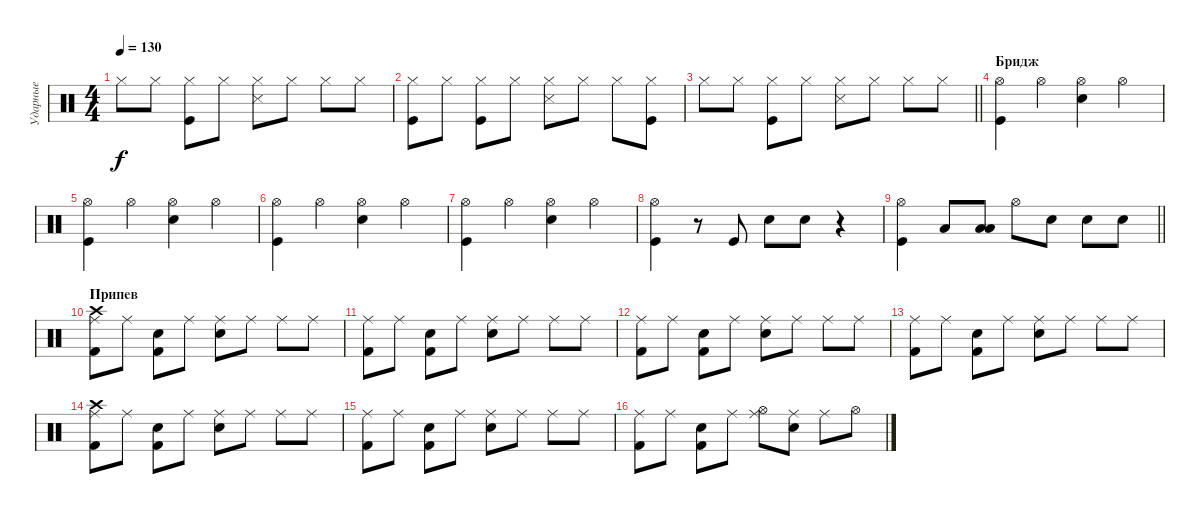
\track ("Ударные" "Ударные") {instrument percussion}
\staff {score}
\articulation defaults
\ts (4 4)
\tempo 130
\clef neutral
\ks c "Hi-Hat (closed)".8{dy f} "Hi-Hat (closed)".8
("Hi-Hat (closed)" "Kick (hit)").8 "Hi-Hat (closed)".8 ("Hi-Hat (closed)" "Snare (side stick) 3").8 "Hi-Hat (closed)".8 "Hi-Hat (closed)".8 "Hi-Hat (closed)".8 |
("Hi-Hat (closed)" "Kick (hit)").8 "Hi-Hat (closed)".8 ("Hi-Hat (closed)" "Kick (hit)").8 "Hi-Hat (closed)".8 ("Hi-Hat (closed)" "Snare (side stick) 3").8 "Hi-Hat (closed)".8 "Hi-Hat (closed)".8 ("Hi-Hat (closed)" "Kick (hit)").8 |
\barLineRight lightlight "Hi-Hat (closed)".8 "Hi-Hat (closed)".8
("Hi-Hat (closed)" "Kick (hit)").8 "Hi-Hat (closed)".8 ("Hi-Hat (closed)" "Snare (side stick) 3").8 "Hi-Hat (closed)".8 "Hi-Hat (closed)".8 "Hi-Hat (closed)".8 |
\section ("" "Бридж")
("Hi-Hat (open)" "Kick (hit)").4 "Hi-Hat (open)".4 ("Hi-Hat (open)" "Electric Snare (hit)").4 "Hi-Hat (open)".4 |
("Hi-Hat (open)" "Kick (hit)").4 "Hi-Hat (open)".4 ("Hi-Hat (open)" "Electric Snare (hit)").4 "Hi-Hat (open)".4 |
("Hi-Hat (open)" "Kick (hit)").4 "Hi-Hat (open)".4 ("Hi-Hat (open)" "Electric Snare (hit)").4 "Hi-Hat (open)".4 |
("Hi-Hat (open)" "Kick (hit)").4 "Hi-Hat (open)".4 ("Hi-Hat (open)" "Electric Snare (hit)").4 "Hi-Hat (open)".4 |
("Hi-Hat (open)" "Kick (hit)").4 r.8 "Kick (hit)".8 "Electric Snare (hit)".8 "Electric Snare (hit)".8 r.4 |
\barLineRight lightlight
("Hi-Hat (open)" "Kick (hit)").4 "Low Tom (hit)".8 ("Low Tom (hit)" "Low Tom (hit)").8 "Hi-Hat (open)".8 "Electric Snare (hit)".8 "Electric Snare (hit)".8 "Electric Snare (hit)".8 |
\section ("" "Припев")
("Crash high (hit)" "Ride (middle)" "Kick (hit) 2").8 "Ride (middle)".8 ("Snare (hit)" "Kick (hit) 2").8 "Ride (middle)".8 ("Ride (middle)" "Electric Snare (hit)").8 "Ride (middle)".8 "Ride (middle)".8 "Ride (middle)".8 |
("Ride (middle)" "Kick (hit) 2").8 "Ride (middle)".8 ("Snare (hit)" "Kick (hit) 2").8 "Ride (middle)".8 ("Ride (middle)" "Electric Snare (hit)").8 "Ride (middle)".8 "Ride (middle)".8 "Ride (middle)".8 |
("Ride (middle)" "Kick (hit) 2").8 "Ride (middle)".8 ("Snare (hit)" "Kick (hit) 2").8 "Ride (middle)".8 ("Ride (middle)" "Electric Snare (hit)").8 "Ride (middle)".8 "Ride (middle)".8 "Ride (middle)".8 |
("Ride (middle)" "Kick (hit) 2").8 "Ride (middle)".8 ("Snare (hit)" "Kick (hit) 2").8 "Ride (middle)".8 ("Ride (middle)" "Electric Snare (hit)").8 "Ride (middle)".8 "Ride (middle)".8 "Ride (middle)".8 |
("Crash high (hit)" "Ride (middle)" "Kick (hit) 2").8 "Ride (middle)".8 ("Snare (hit)" "Kick (hit) 2").8 "Ride (middle)".8 ("Ride (middle)" "Electric Snare (hit)").8 "Ride (middle)".8 "Ride (middle)".8 "Ride (middle)".8 |
("Ride (middle)" "Kick (hit) 2").8 "Ride (middle)".8 ("Snare (hit)" "Kick (hit) 2").8 "Ride (middle)".8 ("Ride (middle)" "Electric Snare (hit)").8 "Ride (middle)".8 "Ride (middle)".8 "Ride (middle)".8 |
("Ride (middle)" "Kick (hit) 2").8 "Ride (middle)".8 ("Snare (hit)" "Kick (hit) 2").8 "Ride (middle)".8 ("Ride (middle)" "Hi-Hat (open)").8 ("Electric Snare (hit)" "Ride (middle)").8 "Ride (middle)".8 "Hi-Hat (open)".8
